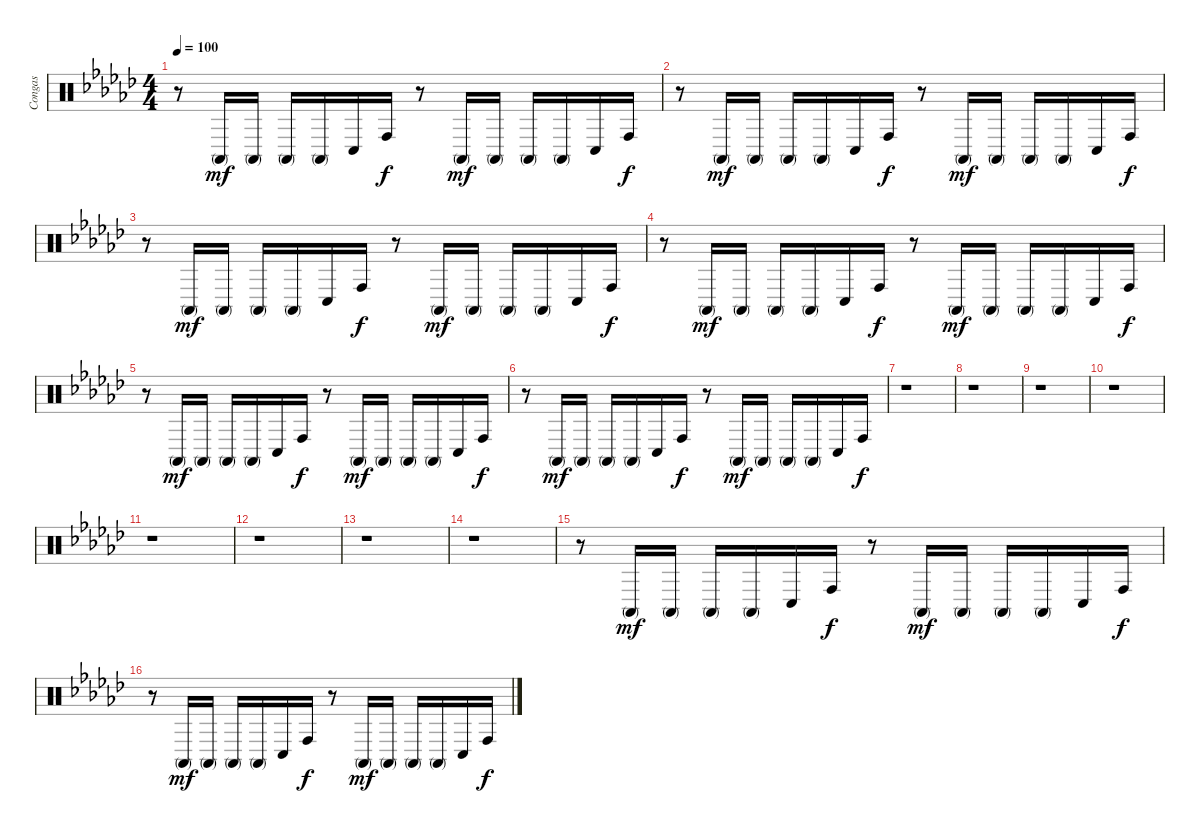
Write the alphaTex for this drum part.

\track ("Congas" "Congas") {instrument percussion}
\staff {score}
\articulation defaults
\ts (4 4)
\tempo 100
\clef neutral
\ks ebminor
r.8{dy f} "Conga high (mute)".16{dy mf} "Conga high (mute)".16 "Conga high (mute)".16 "Conga high (mute)".16 "Conga low (hit)".16 "Conga high (hit)".16{dy f} r.8 "Conga high (mute)".16{dy mf} "Conga high (mute)".16 "Conga high (mute)".16 "Conga high (mute)".16 "Conga low (hit)".16 "Conga high (hit)".16{dy f} |
r.8 "Conga high (mute)".16{dy mf} "Conga high (mute)".16 "Conga high (mute)".16 "Conga high (mute)".16 "Conga low (hit)".16 "Conga high (hit)".16{dy f} r.8 "Conga high (mute)".16{dy mf} "Conga high (mute)".16 "Conga high (mute)".16 "Conga high (mute)".16 "Conga low (hit)".16 "Conga high (hit)".16{dy f} |
r.8 "Conga high (mute)".16{dy mf} "Conga high (mute)".16 "Conga high (mute)".16 "Conga high (mute)".16 "Conga low (hit)".16 "Conga high (hit)".16{dy f} r.8 "Conga high (mute)".16{dy mf} "Conga high (mute)".16 "Conga high (mute)".16 "Conga high (mute)".16 "Conga low (hit)".16 "Conga high (hit)".16{dy f} |
r.8 "Conga high (mute)".16{dy mf} "Conga high (mute)".16 "Conga high (mute)".16 "Conga high (mute)".16 "Conga low (hit)".16 "Conga high (hit)".16{dy f} r.8 "Conga high (mute)".16{dy mf} "Conga high (mute)".16 "Conga high (mute)".16 "Conga high (mute)".16 "Conga low (hit)".16 "Conga high (hit)".16{dy f} |
r.8 "Conga high (mute)".16{dy mf} "Conga high (mute)".16 "Conga high (mute)".16 "Conga high (mute)".16 "Conga low (hit)".16 "Conga high (hit)".16{dy f} r.8 "Conga high (mute)".16{dy mf} "Conga high (mute)".16 "Conga high (mute)".16 "Conga high (mute)".16 "Conga low (hit)".16 "Conga high (hit)".16{dy f} |
r.8 "Conga high (mute)".16{dy mf} "Conga high (mute)".16 "Conga high (mute)".16 "Conga high (mute)".16 "Conga low (hit)".16 "Conga high (hit)".16{dy f} r.8 "Conga high (mute)".16{dy mf} "Conga high (mute)".16 "Conga high (mute)".16 "Conga high (mute)".16 "Conga low (hit)".16 "Conga high (hit)".16{dy f} |
r.1 |
r.1 |
r.1 |
r.1 |
r.1 |
r.1 |
r.1 |
r.1 |
r.8 "Conga high (mute)".16{dy mf} "Conga high (mute)".16 "Conga high (mute)".16 "Conga high (mute)".16 "Conga low (hit)".16 "Conga high (hit)".16{dy f} r.8 "Conga high (mute)".16{dy mf} "Conga high (mute)".16 "Conga high (mute)".16 "Conga high (mute)".16 "Conga low (hit)".16 "Conga high (hit)".16{dy f} |
r.8 "Conga high (mute)".16{dy mf} "Conga high (mute)".16 "Conga high (mute)".16 "Conga high (mute)".16 "Conga low (hit)".16 "Conga high (hit)".16{dy f} r.8 "Conga high (mute)".16{dy mf} "Conga high (mute)".16 "Conga high (mute)".16 "Conga high (mute)".16 "Conga low (hit)".16 "Conga high (hit)".16{dy f}
